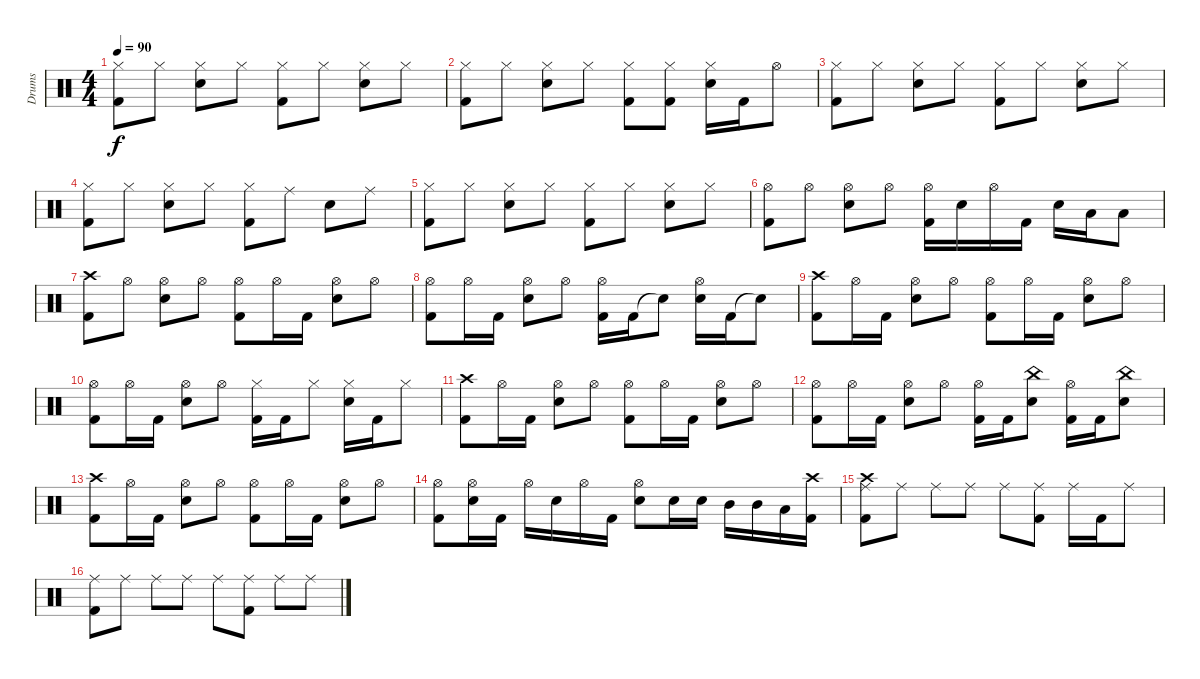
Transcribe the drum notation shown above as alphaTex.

\track ("Drums" "Drums") {instrument percussion}
\staff {score}
\articulation defaults
\ts (4 4)
\tempo 90
\clef neutral
\ks c
("Hi-Hat (closed)" "Kick (hit) 2").8{dy f} "Hi-Hat (closed)".8 ("Hi-Hat (closed)" "Electric Snare (hit)").8 "Hi-Hat (closed)".8 ("Hi-Hat (closed)" "Kick (hit) 2").8 "Hi-Hat (closed)".8 ("Hi-Hat (closed)" "Electric Snare (hit)").8 "Hi-Hat (closed)".8 |
("Hi-Hat (closed)" "Kick (hit) 2").8 "Hi-Hat (closed)".8 ("Hi-Hat (closed)" "Electric Snare (hit)").8 "Hi-Hat (closed)".8 ("Hi-Hat (closed)" "Kick (hit) 2").8 ("Hi-Hat (closed)" "Kick (hit) 2").8 ("Hi-Hat (closed)" "Electric Snare (hit)").16 "Kick (hit) 2".16 "Hi-Hat (open)".8 |
("Hi-Hat (closed)" "Kick (hit) 2").8 "Hi-Hat (closed)".8 ("Hi-Hat (closed)" "Electric Snare (hit)").8 "Hi-Hat (closed)".8 ("Hi-Hat (closed)" "Kick (hit) 2").8 "Hi-Hat (closed)".8 ("Hi-Hat (closed)" "Electric Snare (hit)").8 "Hi-Hat (closed)".8 |
("Hi-Hat (closed)" "Kick (hit) 2").8 "Hi-Hat (closed)".8 ("Hi-Hat (closed)" "Electric Snare (hit)").8 "Hi-Hat (closed)".8 ("Hi-Hat (closed)" "Kick (hit) 2").8 "Ride (middle)".8 "Electric Snare (hit)".8 "Ride (middle)".8 |
("Hi-Hat (closed)" "Kick (hit) 2").8 "Hi-Hat (closed)".8 ("Hi-Hat (closed)" "Electric Snare (hit)").8 "Hi-Hat (closed)".8 ("Hi-Hat (closed)" "Kick (hit) 2").8 "Hi-Hat (closed)".8 ("Hi-Hat (closed)" "Electric Snare (hit)").8 "Hi-Hat (closed)".8 |
("Hi-Hat (open)" "Kick (hit) 2").8 "Hi-Hat (open)".8 ("Hi-Hat (open)" "Electric Snare (hit)").8 "Hi-Hat (open)".8 ("Hi-Hat (open)" "Kick (hit) 2").16 "Electric Snare (hit)".16 "Hi-Hat (open)".16 "Kick (hit) 2".16 "Electric Snare (hit)".16 "Low Tom (hit)".16 "Low Tom (hit)".8 |
("Crash high (hit)" "Kick (hit) 2").8 "Hi-Hat (open)".8 ("Hi-Hat (open)" "Electric Snare (hit)").8 "Hi-Hat (open)".8 ("Hi-Hat (open)" "Kick (hit) 2").8 "Hi-Hat (open)".16 "Kick (hit) 2".16 ("Hi-Hat (open)" "Electric Snare (hit)").8 "Hi-Hat (open)".8 |
("Hi-Hat (open)" "Kick (hit) 2").8 "Hi-Hat (open)".16 "Kick (hit) 2".16 ("Hi-Hat (open)" "Electric Snare (hit)").8 "Hi-Hat (open)".8 ("Hi-Hat (open)" "Kick (hit) 2").16 "Kick (hit) 2".16 "Snare (hit)"{t}.8 ("Hi-Hat (open)" "Electric Snare (hit)").16 "Kick (hit) 2".16 "Snare (hit)"{t}.8 |
("Crash high (hit)" "Kick (hit) 2").8 "Hi-Hat (open)".16 "Kick (hit) 2".16 ("Hi-Hat (open)" "Electric Snare (hit)").8 "Hi-Hat (open)".8 ("Hi-Hat (open)" "Kick (hit) 2").8 "Hi-Hat (open)".16 "Kick (hit) 2".16 ("Hi-Hat (open)" "Electric Snare (hit)").8 "Hi-Hat (open)".8 |
("Hi-Hat (open)" "Kick (hit) 2").8 "Hi-Hat (open)".16 "Kick (hit) 2".16 ("Hi-Hat (open)" "Electric Snare (hit)").8 "Hi-Hat (open)".8 ("Hi-Hat (closed)" "Kick (hit) 2").16 "Kick (hit) 2".16 "Hi-Hat (closed)".8 ("Hi-Hat (closed)" "Electric Snare (hit)").16 "Kick (hit) 2".16 "Hi-Hat (closed)".8 |
("Crash high (hit)" "Kick (hit) 2").8 "Hi-Hat (open)".16 "Kick (hit) 2".16 ("Hi-Hat (open)" "Electric Snare (hit)").8 "Hi-Hat (open)".8 ("Hi-Hat (open)" "Kick (hit) 2").8 "Hi-Hat (open)".16 "Kick (hit) 2".16 ("Hi-Hat (open)" "Electric Snare (hit)").8 "Hi-Hat (open)".8 |
("Hi-Hat (open)" "Kick (hit) 2").8 "Hi-Hat (open)".16 "Kick (hit) 2".16 ("Hi-Hat (open)" "Electric Snare (hit)").8 "Hi-Hat (open)".8 ("Hi-Hat (open)" "Kick (hit) 2").16 "Kick (hit) 2".16 ("China (hit)" "Electric Snare (hit)").8 ("Hi-Hat (open)" "Kick (hit) 2").16 "Kick (hit) 2".16 ("China (hit)" "Electric Snare (hit)").8 |
("Crash high (hit)" "Kick (hit) 2").8 "Hi-Hat (open)".16 "Kick (hit) 2".16 ("Hi-Hat (open)" "Electric Snare (hit)").8 "Hi-Hat (open)".8 ("Hi-Hat (open)" "Kick (hit) 2").8 "Hi-Hat (open)".16 "Kick (hit) 2".16 ("Hi-Hat (open)" "Electric Snare (hit)").8 "Hi-Hat (open)".8 |
("Hi-Hat (open)" "Kick (hit) 2").8 ("Hi-Hat (open)" "Electric Snare (hit)").16 "Kick (hit) 2".16 "Hi-Hat (open)".16 "Electric Snare (hit)".16 "Hi-Hat (open)".16 "Kick (hit) 2".16 ("Hi-Hat (open)" "Electric Snare (hit)").8 "Electric Snare (hit)".16 "Electric Snare (hit)".16 "Mid Tom (hit)".16 "Mid Tom (hit)".16 "Low Tom (hit)".16 ("Crash high (hit)" "Kick (hit) 2").16 |
("Crash high (hit)" "Ride (middle)" "Kick (hit) 2").8 "Ride (middle)".8 "Ride (middle)".8 "Ride (middle)".8 "Ride (middle)".8 ("Ride (middle)" "Kick (hit) 2").8 "Ride (middle)".16 "Kick (hit) 2".16 "Ride (middle)".8 |
("Ride (middle)" "Kick (hit) 2").8 "Ride (middle)".8 "Ride (middle)".8 "Ride (middle)".8 "Ride (middle)".8 ("Ride (middle)" "Kick (hit) 2").8 "Ride (middle)".8 "Ride (middle)".8
